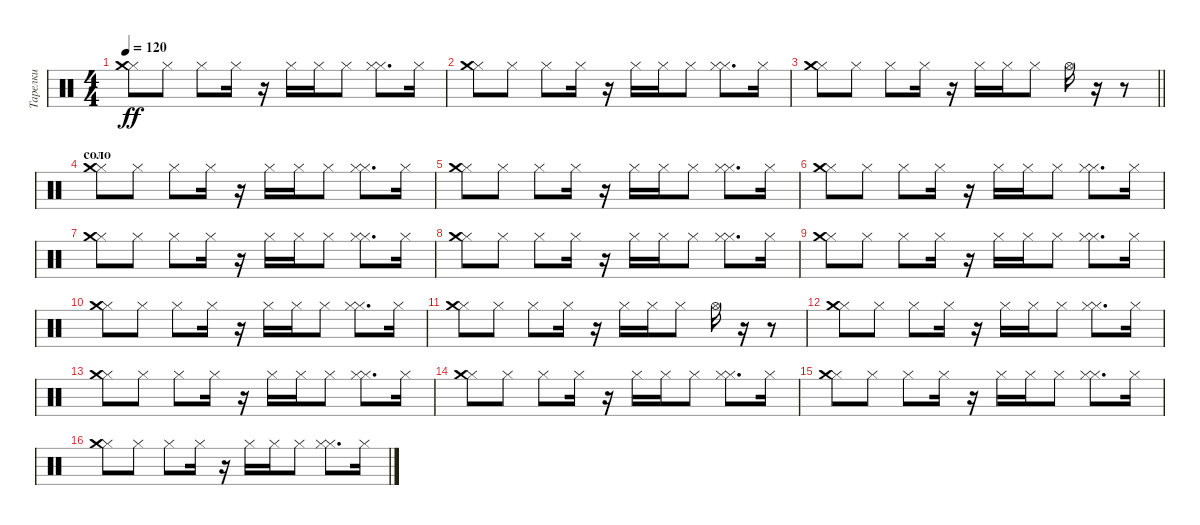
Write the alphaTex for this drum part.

\track ("Тарелки" "Тарелки") {instrument percussion}
\staff {score}
\articulation defaults
\ts (4 4)
\tempo 120
\clef neutral
\ks c
("Hi-Hat (closed)" "Crash medium (hit)").8{dy ff} "Hi-Hat (closed)".8 "Hi-Hat (closed)".8 "Hi-Hat (closed)".16 r.16 "Hi-Hat (closed)".16 "Hi-Hat (closed)".16 "Hi-Hat (closed)".8 ("Hi-Hat (closed)" "Hi-Hat (closed)").8{d} "Hi-Hat (closed)".16 |
("Hi-Hat (closed)" "Crash medium (hit)").8 "Hi-Hat (closed)".8 "Hi-Hat (closed)".8 "Hi-Hat (closed)".16 r.16 "Hi-Hat (closed)".16 "Hi-Hat (closed)".16 "Hi-Hat (closed)".8 ("Hi-Hat (closed)" "Hi-Hat (closed)").8{d} "Hi-Hat (closed)".16 |
\barLineRight lightlight
("Hi-Hat (closed)" "Crash medium (hit)").8 "Hi-Hat (closed)".8 "Hi-Hat (closed)".8 "Hi-Hat (closed)".16 r.16 "Hi-Hat (closed)".16 "Hi-Hat (closed)".16 "Hi-Hat (closed)".8 "Hi-Hat (open)".16 r.16 r.8 |
\section ("" "соло")
("Hi-Hat (closed)" "Crash medium (hit)").8 "Hi-Hat (closed)".8 "Hi-Hat (closed)".8 "Hi-Hat (closed)".16 r.16 "Hi-Hat (closed)".16 "Hi-Hat (closed)".16 "Hi-Hat (closed)".8 ("Hi-Hat (closed)" "Hi-Hat (closed)").8{d} "Hi-Hat (closed)".16 |
("Hi-Hat (closed)" "Crash medium (hit)").8 "Hi-Hat (closed)".8 "Hi-Hat (closed)".8 "Hi-Hat (closed)".16 r.16 "Hi-Hat (closed)".16 "Hi-Hat (closed)".16 "Hi-Hat (closed)".8 ("Hi-Hat (closed)" "Hi-Hat (closed)").8{d} "Hi-Hat (closed)".16 |
("Hi-Hat (closed)" "Crash medium (hit)").8 "Hi-Hat (closed)".8 "Hi-Hat (closed)".8 "Hi-Hat (closed)".16 r.16 "Hi-Hat (closed)".16 "Hi-Hat (closed)".16 "Hi-Hat (closed)".8 ("Hi-Hat (closed)" "Hi-Hat (closed)").8{d} "Hi-Hat (closed)".16 |
("Hi-Hat (closed)" "Crash medium (hit)").8 "Hi-Hat (closed)".8 "Hi-Hat (closed)".8 "Hi-Hat (closed)".16 r.16 "Hi-Hat (closed)".16 "Hi-Hat (closed)".16 "Hi-Hat (closed)".8 ("Hi-Hat (closed)" "Hi-Hat (closed)").8{d} "Hi-Hat (closed)".16 |
("Hi-Hat (closed)" "Crash medium (hit)").8 "Hi-Hat (closed)".8 "Hi-Hat (closed)".8 "Hi-Hat (closed)".16 r.16 "Hi-Hat (closed)".16 "Hi-Hat (closed)".16 "Hi-Hat (closed)".8 ("Hi-Hat (closed)" "Hi-Hat (closed)").8{d} "Hi-Hat (closed)".16 |
("Hi-Hat (closed)" "Crash medium (hit)").8 "Hi-Hat (closed)".8 "Hi-Hat (closed)".8 "Hi-Hat (closed)".16 r.16 "Hi-Hat (closed)".16 "Hi-Hat (closed)".16 "Hi-Hat (closed)".8 ("Hi-Hat (closed)" "Hi-Hat (closed)").8{d} "Hi-Hat (closed)".16 |
("Hi-Hat (closed)" "Crash medium (hit)").8 "Hi-Hat (closed)".8 "Hi-Hat (closed)".8 "Hi-Hat (closed)".16 r.16 "Hi-Hat (closed)".16 "Hi-Hat (closed)".16 "Hi-Hat (closed)".8 ("Hi-Hat (closed)" "Hi-Hat (closed)").8{d} "Hi-Hat (closed)".16 |
("Hi-Hat (closed)" "Crash medium (hit)").8 "Hi-Hat (closed)".8 "Hi-Hat (closed)".8 "Hi-Hat (closed)".16 r.16 "Hi-Hat (closed)".16 "Hi-Hat (closed)".16 "Hi-Hat (closed)".8 "Hi-Hat (open)".16 r.16 r.8 |
("Hi-Hat (closed)" "Crash medium (hit)").8 "Hi-Hat (closed)".8 "Hi-Hat (closed)".8 "Hi-Hat (closed)".16 r.16 "Hi-Hat (closed)".16 "Hi-Hat (closed)".16 "Hi-Hat (closed)".8 ("Hi-Hat (closed)" "Hi-Hat (closed)").8{d} "Hi-Hat (closed)".16 |
("Hi-Hat (closed)" "Crash medium (hit)").8 "Hi-Hat (closed)".8 "Hi-Hat (closed)".8 "Hi-Hat (closed)".16 r.16 "Hi-Hat (closed)".16 "Hi-Hat (closed)".16 "Hi-Hat (closed)".8 ("Hi-Hat (closed)" "Hi-Hat (closed)").8{d} "Hi-Hat (closed)".16 |
("Hi-Hat (closed)" "Crash medium (hit)").8 "Hi-Hat (closed)".8 "Hi-Hat (closed)".8 "Hi-Hat (closed)".16 r.16 "Hi-Hat (closed)".16 "Hi-Hat (closed)".16 "Hi-Hat (closed)".8 ("Hi-Hat (closed)" "Hi-Hat (closed)").8{d} "Hi-Hat (closed)".16 |
("Hi-Hat (closed)" "Crash medium (hit)").8 "Hi-Hat (closed)".8 "Hi-Hat (closed)".8 "Hi-Hat (closed)".16 r.16 "Hi-Hat (closed)".16 "Hi-Hat (closed)".16 "Hi-Hat (closed)".8 ("Hi-Hat (closed)" "Hi-Hat (closed)").8{d} "Hi-Hat (closed)".16 |
("Hi-Hat (closed)" "Crash medium (hit)").8 "Hi-Hat (closed)".8 "Hi-Hat (closed)".8 "Hi-Hat (closed)".16 r.16 "Hi-Hat (closed)".16 "Hi-Hat (closed)".16 "Hi-Hat (closed)".8 ("Hi-Hat (closed)" "Hi-Hat (closed)").8{d} "Hi-Hat (closed)".16
